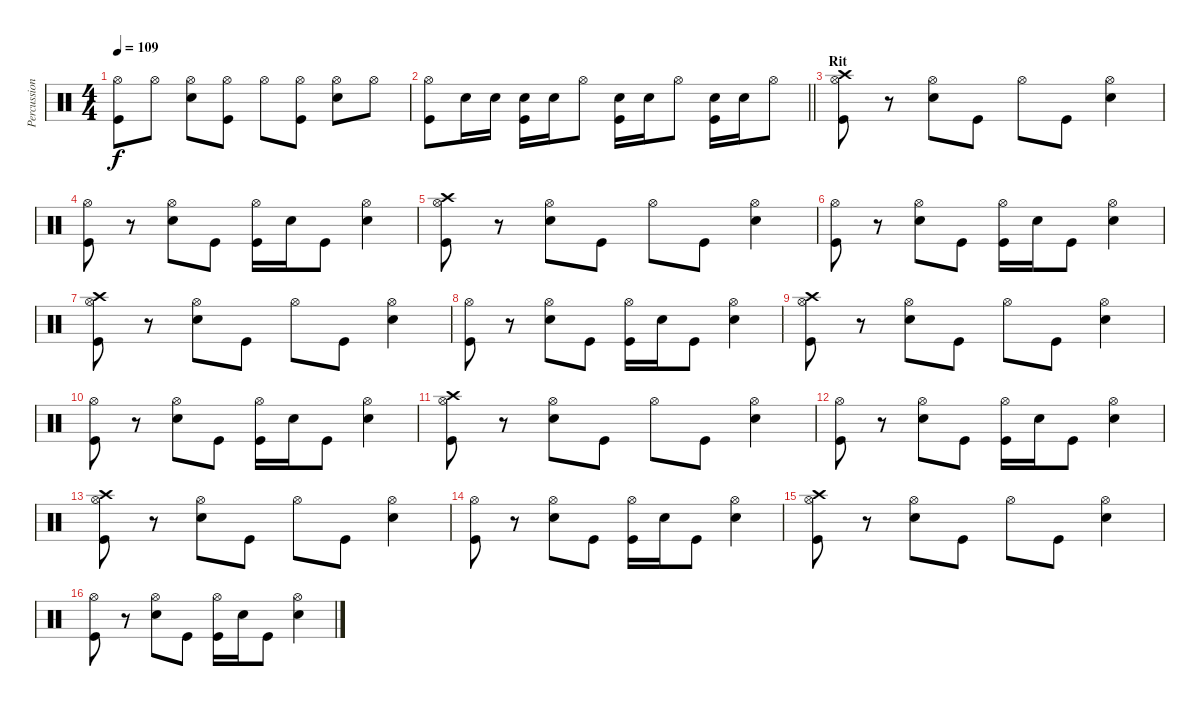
\track ("Percussioni" "Percussion") {instrument percussion}
\staff {score}
\articulation defaults
\ts (4 4)
\tempo 109
\clef neutral
\ks c
("Kick (hit)" "Hi-Hat (open)").8{dy f} "Hi-Hat (open)".8 ("Snare (hit) 2" "Hi-Hat (open)").8 ("Kick (hit)" "Hi-Hat (open)").8 "Hi-Hat (open)".8 ("Kick (hit)" "Hi-Hat (open)").8 ("Snare (hit) 2" "Hi-Hat (open)").8 "Hi-Hat (open)".8 |
\barLineRight lightlight
("Hi-Hat (open)" "Kick (hit)").8 "Snare (hit) 2".16 "Snare (hit) 2".16 ("Snare (hit) 2" "Kick (hit)").16 "Snare (hit) 2".16 "Hi-Hat (open)".8 ("Snare (hit) 2" "Kick (hit)").16 "Snare (hit) 2".16 "Hi-Hat (open)".8 ("Snare (hit) 2" "Kick (hit)").16 "Snare (hit) 2".16 "Hi-Hat (open)".8 |
\section ("" "Rit")
("Crash high (hit)" "Kick (hit)" "Hi-Hat (open)").8 r.8 ("Snare (hit) 2" "Hi-Hat (open)").8 "Kick (hit)".8 "Hi-Hat (open)".8 "Kick (hit)".8 ("Snare (hit) 2" "Hi-Hat (open)").4 |
("Kick (hit)" "Hi-Hat (open)").8 r.8 ("Snare (hit) 2" "Hi-Hat (open)").8 "Kick (hit)".8 ("Kick (hit)" "Hi-Hat (open)").16 "Snare (hit) 2".16 "Kick (hit)".8 ("Snare (hit) 2" "Hi-Hat (open)").4 |
("Crash high (hit)" "Kick (hit)" "Hi-Hat (open)").8 r.8 ("Snare (hit) 2" "Hi-Hat (open)").8 "Kick (hit)".8 "Hi-Hat (open)".8 "Kick (hit)".8 ("Snare (hit) 2" "Hi-Hat (open)").4 |
("Kick (hit)" "Hi-Hat (open)").8 r.8 ("Snare (hit) 2" "Hi-Hat (open)").8 "Kick (hit)".8 ("Kick (hit)" "Hi-Hat (open)").16 "Snare (hit) 2".16 "Kick (hit)".8 ("Snare (hit) 2" "Hi-Hat (open)").4 |
("Crash high (hit)" "Kick (hit)" "Hi-Hat (open)").8 r.8 ("Snare (hit) 2" "Hi-Hat (open)").8 "Kick (hit)".8 "Hi-Hat (open)".8 "Kick (hit)".8 ("Snare (hit) 2" "Hi-Hat (open)").4 |
("Kick (hit)" "Hi-Hat (open)").8 r.8 ("Snare (hit) 2" "Hi-Hat (open)").8 "Kick (hit)".8 ("Kick (hit)" "Hi-Hat (open)").16 "Snare (hit) 2".16 "Kick (hit)".8 ("Snare (hit) 2" "Hi-Hat (open)").4 |
("Crash high (hit)" "Kick (hit)" "Hi-Hat (open)").8 r.8 ("Snare (hit) 2" "Hi-Hat (open)").8 "Kick (hit)".8 "Hi-Hat (open)".8 "Kick (hit)".8 ("Snare (hit) 2" "Hi-Hat (open)").4 |
("Kick (hit)" "Hi-Hat (open)").8 r.8 ("Snare (hit) 2" "Hi-Hat (open)").8 "Kick (hit)".8 ("Kick (hit)" "Hi-Hat (open)").16 "Snare (hit) 2".16 "Kick (hit)".8 ("Snare (hit) 2" "Hi-Hat (open)").4 |
("Crash high (hit)" "Kick (hit)" "Hi-Hat (open)").8 r.8 ("Snare (hit) 2" "Hi-Hat (open)").8 "Kick (hit)".8 "Hi-Hat (open)".8 "Kick (hit)".8 ("Snare (hit) 2" "Hi-Hat (open)").4 |
("Kick (hit)" "Hi-Hat (open)").8 r.8 ("Snare (hit) 2" "Hi-Hat (open)").8 "Kick (hit)".8 ("Kick (hit)" "Hi-Hat (open)").16 "Snare (hit) 2".16 "Kick (hit)".8 ("Snare (hit) 2" "Hi-Hat (open)").4 |
("Crash high (hit)" "Kick (hit)" "Hi-Hat (open)").8 r.8 ("Snare (hit) 2" "Hi-Hat (open)").8 "Kick (hit)".8 "Hi-Hat (open)".8 "Kick (hit)".8 ("Snare (hit) 2" "Hi-Hat (open)").4 |
("Kick (hit)" "Hi-Hat (open)").8 r.8 ("Snare (hit) 2" "Hi-Hat (open)").8 "Kick (hit)".8 ("Kick (hit)" "Hi-Hat (open)").16 "Snare (hit) 2".16 "Kick (hit)".8 ("Snare (hit) 2" "Hi-Hat (open)").4 |
("Crash high (hit)" "Kick (hit)" "Hi-Hat (open)").8 r.8 ("Snare (hit) 2" "Hi-Hat (open)").8 "Kick (hit)".8 "Hi-Hat (open)".8 "Kick (hit)".8 ("Snare (hit) 2" "Hi-Hat (open)").4 |
("Kick (hit)" "Hi-Hat (open)").8 r.8 ("Snare (hit) 2" "Hi-Hat (open)").8 "Kick (hit)".8 ("Kick (hit)" "Hi-Hat (open)").16 "Snare (hit) 2".16 "Kick (hit)".8 ("Snare (hit) 2" "Hi-Hat (open)").4
